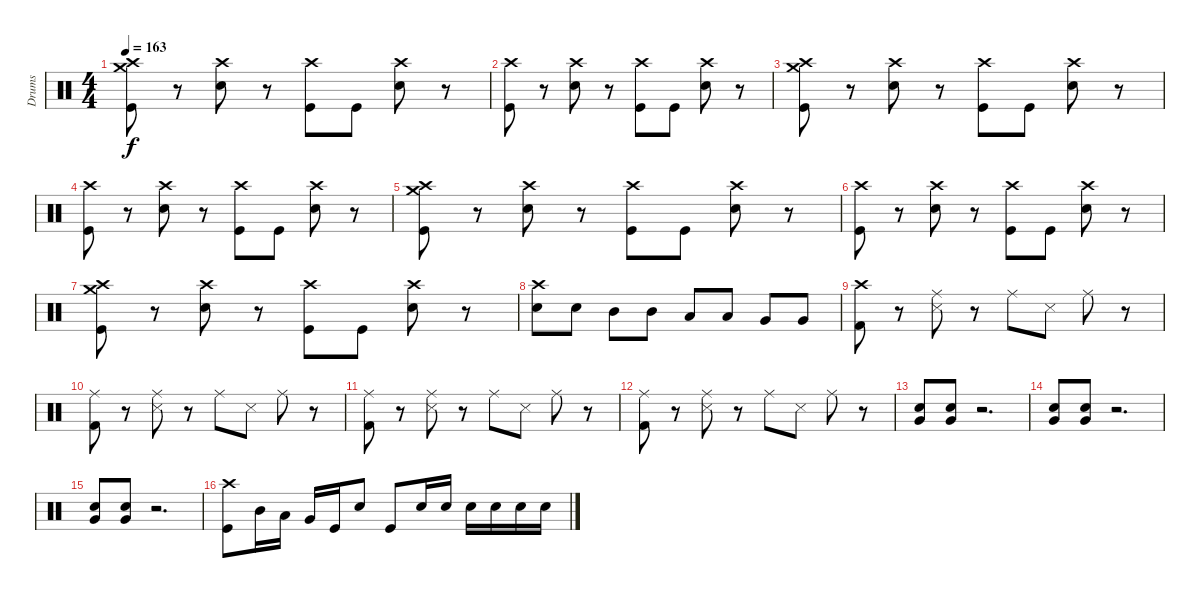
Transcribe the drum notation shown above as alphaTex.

\track ("Drums" "Drums") {instrument percussion}
\staff {score}
\articulation defaults
\ts (4 4)
\tempo 163
\clef neutral
\ks c
("Crash high (hit)" "Crash medium (hit)" "Kick (hit)").8{dy f} r.8 ("Crash high (hit)" "Electric Snare (hit)").8 r.8 ("Crash high (hit)" "Kick (hit)").8 "Kick (hit)".8 ("Crash high (hit)" "Electric Snare (hit)").8 r.8 |
("Crash high (hit)" "Kick (hit)").8 r.8 ("Crash high (hit)" "Electric Snare (hit)").8 r.8 ("Crash high (hit)" "Kick (hit)").8 "Kick (hit)".8 ("Crash high (hit)" "Electric Snare (hit)").8 r.8 |
("Crash high (hit)" "Crash medium (hit)" "Kick (hit)").8 r.8 ("Crash high (hit)" "Electric Snare (hit)").8 r.8 ("Crash high (hit)" "Kick (hit)").8 "Kick (hit)".8 ("Crash high (hit)" "Electric Snare (hit)").8 r.8 |
("Crash high (hit)" "Kick (hit)").8 r.8 ("Crash high (hit)" "Electric Snare (hit)").8 r.8 ("Crash high (hit)" "Kick (hit)").8 "Kick (hit)".8 ("Crash high (hit)" "Electric Snare (hit)").8 r.8 |
("Crash high (hit)" "Crash medium (hit)" "Kick (hit)").8 r.8 ("Crash high (hit)" "Electric Snare (hit)").8 r.8 ("Crash high (hit)" "Kick (hit)").8 "Kick (hit)".8 ("Crash high (hit)" "Electric Snare (hit)").8 r.8 |
("Crash high (hit)" "Kick (hit)").8 r.8 ("Crash high (hit)" "Electric Snare (hit)").8 r.8 ("Crash high (hit)" "Kick (hit)").8 "Kick (hit)".8 ("Crash high (hit)" "Electric Snare (hit)").8 r.8 |
("Crash high (hit)" "Crash medium (hit)" "Kick (hit)").8 r.8 ("Crash high (hit)" "Electric Snare (hit)").8 r.8 ("Crash high (hit)" "Kick (hit)").8 "Kick (hit)".8 ("Crash high (hit)" "Electric Snare (hit)").8 r.8 |
("Crash high (hit)" "Electric Snare (hit)").8 "Electric Snare (hit)".8 "Mid Tom (hit)".8 "Mid Tom (hit)".8 "Low Tom (hit)".8 "Low Tom (hit)".8 "Very Low Tom (hit)".8 "Very Low Tom (hit)".8 |
("Crash high (hit)" "Kick (hit) 2").8 r.8 ("Ride (middle)" "Snare (side stick) 3").8 r.8 "Ride (middle)".8 "Snare (side stick) 3".8 "Ride (middle)".8 r.8 |
("Ride (middle)" "Kick (hit) 2").8 r.8 ("Ride (middle)" "Snare (side stick) 3").8 r.8 "Ride (middle)".8 "Snare (side stick) 3".8 "Ride (middle)".8 r.8 |
("Ride (middle)" "Kick (hit) 2").8 r.8 ("Ride (middle)" "Snare (side stick) 3").8 r.8 "Ride (middle)".8 "Snare (side stick) 3".8 "Ride (middle)".8 r.8 |
("Ride (middle)" "Kick (hit) 2").8 r.8 ("Ride (middle)" "Snare (side stick) 3").8 r.8 "Ride (middle)".8 "Snare (side stick) 3".8 "Ride (middle)".8 r.8 |
("Electric Snare (hit)" "Very Low Tom (hit)").8 ("Electric Snare (hit)" "Very Low Tom (hit)").8 r.2{d} |
("Electric Snare (hit)" "Very Low Tom (hit)").8 ("Electric Snare (hit)" "Very Low Tom (hit)").8 r.2{d} |
("Electric Snare (hit)" "Very Low Tom (hit)").8 ("Electric Snare (hit)" "Very Low Tom (hit)").8 r.2{d} |
("Crash high (hit)" "Kick (hit)").8 "Mid Tom (hit)".16 "Low Tom (hit)".16 "Very Low Tom (hit)".16 "Kick (hit)".16 "Electric Snare (hit)".8 "Kick (hit)".8 "Electric Snare (hit)".16 "Electric Snare (hit)".16 "Electric Snare (hit)".16 "Electric Snare (hit)".16 "Electric Snare (hit)".16 "Electric Snare (hit)".16
